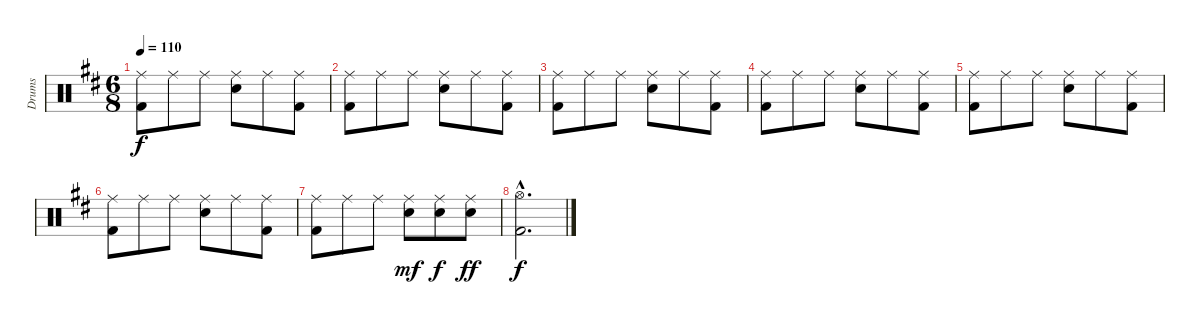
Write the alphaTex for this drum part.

\track ("Drums" "Drums") {instrument percussion}
\staff {score}
\articulation defaults
\ts (6 8)
\tempo 110
\clef neutral
\ks d
("Ride (middle)" "Kick (hit) 2").8{dy f} "Ride (middle)".8 "Ride (middle)".8 ("Ride (middle)" "Electric Snare (hit)").8 "Ride (middle)".8 ("Ride (middle)" "Kick (hit) 2").8 |
("Ride (middle)" "Kick (hit) 2").8 "Ride (middle)".8 "Ride (middle)".8 ("Ride (middle)" "Electric Snare (hit)").8 "Ride (middle)".8 ("Ride (middle)" "Kick (hit) 2").8 |
("Ride (middle)" "Kick (hit) 2").8 "Ride (middle)".8 "Ride (middle)".8 ("Ride (middle)" "Electric Snare (hit)").8 "Ride (middle)".8 ("Ride (middle)" "Kick (hit) 2").8 |
("Ride (middle)" "Kick (hit) 2").8 "Ride (middle)".8 "Ride (middle)".8 ("Ride (middle)" "Electric Snare (hit)").8 "Ride (middle)".8 ("Ride (middle)" "Kick (hit) 2").8 |
("Ride (middle)" "Kick (hit) 2").8 "Ride (middle)".8 "Ride (middle)".8 ("Ride (middle)" "Electric Snare (hit)").8 "Ride (middle)".8 ("Ride (middle)" "Kick (hit) 2").8 |
("Ride (middle)" "Kick (hit) 2").8 "Ride (middle)".8 "Ride (middle)".8 ("Ride (middle)" "Electric Snare (hit)").8 "Ride (middle)".8 ("Ride (middle)" "Kick (hit) 2").8 |
("Ride (middle)" "Kick (hit) 2").8 "Ride (middle)".8 "Ride (middle)".8 ("Ride (middle)" "Electric Snare (hit)").8{dy mf} ("Ride (middle)" "Electric Snare (hit)").8{dy f} ("Ride (middle)" "Electric Snare (hit)").8{dy ff} |
("Hi-Hat (open)"{hac} "Kick (hit) 2"{hac}).2{d dy f}
